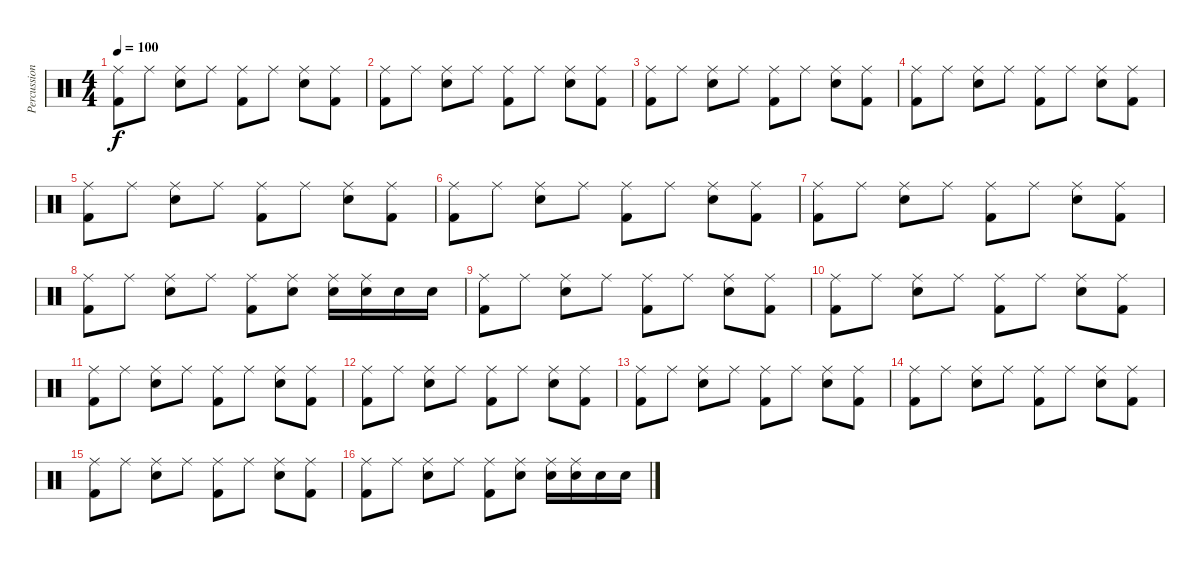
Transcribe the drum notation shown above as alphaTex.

\track ("Percussion" "Percussion") {instrument percussion}
\staff {score}
\articulation defaults
\ts (4 4)
\tempo 100
\clef neutral
\ks c
("Kick (hit) 2" "Ride (middle)").8{dy f} "Ride (middle)".8 ("Snare (hit) 2" "Ride (middle)").8 "Ride (middle)".8 ("Kick (hit) 2" "Ride (middle)").8 "Ride (middle)".8 ("Snare (hit) 2" "Ride (middle)").8 ("Kick (hit) 2" "Ride (middle)").8 |
("Kick (hit) 2" "Ride (middle)").8 "Ride (middle)".8 ("Snare (hit) 2" "Ride (middle)").8 "Ride (middle)".8 ("Kick (hit) 2" "Ride (middle)").8 "Ride (middle)".8 ("Snare (hit) 2" "Ride (middle)").8 ("Kick (hit) 2" "Ride (middle)").8 |
("Kick (hit) 2" "Ride (middle)").8 "Ride (middle)".8 ("Snare (hit) 2" "Ride (middle)").8 "Ride (middle)".8 ("Kick (hit) 2" "Ride (middle)").8 "Ride (middle)".8 ("Snare (hit) 2" "Ride (middle)").8 ("Kick (hit) 2" "Ride (middle)").8 |
("Kick (hit) 2" "Ride (middle)").8 "Ride (middle)".8 ("Snare (hit) 2" "Ride (middle)").8 "Ride (middle)".8 ("Kick (hit) 2" "Ride (middle)").8 "Ride (middle)".8 ("Snare (hit) 2" "Ride (middle)").8 ("Kick (hit) 2" "Ride (middle)").8 |
("Kick (hit) 2" "Ride (middle)").8 "Ride (middle)".8 ("Snare (hit) 2" "Ride (middle)").8 "Ride (middle)".8 ("Kick (hit) 2" "Ride (middle)").8 "Ride (middle)".8 ("Snare (hit) 2" "Ride (middle)").8 ("Kick (hit) 2" "Ride (middle)").8 |
("Kick (hit) 2" "Ride (middle)").8 "Ride (middle)".8 ("Snare (hit) 2" "Ride (middle)").8 "Ride (middle)".8 ("Kick (hit) 2" "Ride (middle)").8 "Ride (middle)".8 ("Snare (hit) 2" "Ride (middle)").8 ("Kick (hit) 2" "Ride (middle)").8 |
("Kick (hit) 2" "Ride (middle)").8 "Ride (middle)".8 ("Snare (hit) 2" "Ride (middle)").8 "Ride (middle)".8 ("Kick (hit) 2" "Ride (middle)").8 "Ride (middle)".8 ("Snare (hit) 2" "Ride (middle)").8 ("Kick (hit) 2" "Ride (middle)").8 |
("Kick (hit) 2" "Ride (middle)").8 "Ride (middle)".8 ("Snare (hit) 2" "Ride (middle)").8 "Ride (middle)".8 ("Kick (hit) 2" "Ride (middle)").8 ("Snare (hit) 2" "Ride (middle)").8 ("Snare (hit) 2" "Ride (middle)").16 ("Snare (hit) 2" "Ride (middle)").16 "Snare (hit) 2".16 "Snare (hit) 2".16 |
("Kick (hit) 2" "Ride (middle)").8 "Ride (middle)".8 ("Snare (hit) 2" "Ride (middle)").8 "Ride (middle)".8 ("Kick (hit) 2" "Ride (middle)").8 "Ride (middle)".8 ("Snare (hit) 2" "Ride (middle)").8 ("Kick (hit) 2" "Ride (middle)").8 |
("Kick (hit) 2" "Ride (middle)").8 "Ride (middle)".8 ("Snare (hit) 2" "Ride (middle)").8 "Ride (middle)".8 ("Kick (hit) 2" "Ride (middle)").8 "Ride (middle)".8 ("Snare (hit) 2" "Ride (middle)").8 ("Kick (hit) 2" "Ride (middle)").8 |
("Kick (hit) 2" "Ride (middle)").8 "Ride (middle)".8 ("Snare (hit) 2" "Ride (middle)").8 "Ride (middle)".8 ("Kick (hit) 2" "Ride (middle)").8 "Ride (middle)".8 ("Snare (hit) 2" "Ride (middle)").8 ("Kick (hit) 2" "Ride (middle)").8 |
("Kick (hit) 2" "Ride (middle)").8 "Ride (middle)".8 ("Snare (hit) 2" "Ride (middle)").8 "Ride (middle)".8 ("Kick (hit) 2" "Ride (middle)").8 "Ride (middle)".8 ("Snare (hit) 2" "Ride (middle)").8 ("Kick (hit) 2" "Ride (middle)").8 |
("Kick (hit) 2" "Ride (middle)").8 "Ride (middle)".8 ("Snare (hit) 2" "Ride (middle)").8 "Ride (middle)".8 ("Kick (hit) 2" "Ride (middle)").8 "Ride (middle)".8 ("Snare (hit) 2" "Ride (middle)").8 ("Kick (hit) 2" "Ride (middle)").8 |
("Kick (hit) 2" "Ride (middle)").8 "Ride (middle)".8 ("Snare (hit) 2" "Ride (middle)").8 "Ride (middle)".8 ("Kick (hit) 2" "Ride (middle)").8 "Ride (middle)".8 ("Snare (hit) 2" "Ride (middle)").8 ("Kick (hit) 2" "Ride (middle)").8 |
("Kick (hit) 2" "Ride (middle)").8 "Ride (middle)".8 ("Snare (hit) 2" "Ride (middle)").8 "Ride (middle)".8 ("Kick (hit) 2" "Ride (middle)").8 "Ride (middle)".8 ("Snare (hit) 2" "Ride (middle)").8 ("Kick (hit) 2" "Ride (middle)").8 |
("Kick (hit) 2" "Ride (middle)").8 "Ride (middle)".8 ("Snare (hit) 2" "Ride (middle)").8 "Ride (middle)".8 ("Kick (hit) 2" "Ride (middle)").8 ("Snare (hit) 2" "Ride (middle)").8 ("Snare (hit) 2" "Ride (middle)").16 ("Snare (hit) 2" "Ride (middle)").16 "Snare (hit) 2".16 "Snare (hit) 2".16
